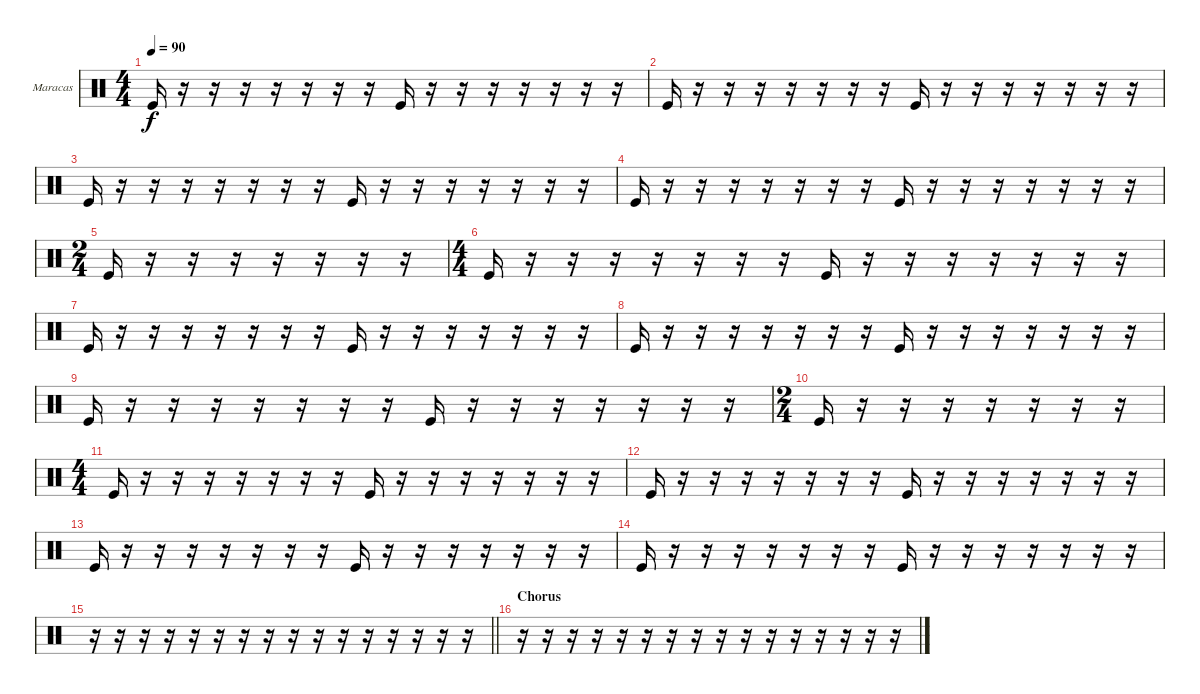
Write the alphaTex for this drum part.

\bracketExtendMode groupsimilarinstruments
\firstSystemTrackNameOrientation horizontal
\otherSystemsTrackNameOrientation horizontal
\track ("Maracas" "Maracas") {multiBarRest instrument percussion}
\staff {score}
\articulation defaults
\ts (4 4)
\beaming (8 2 2 2 2)
\tempo 90
\clef neutral
\ks c "Kick (hit)".16{dy f}
r.16 r.16 r.16 r.16 r.16 r.16 r.16 "Kick (hit)".16 r.16 r.16 r.16 r.16 r.16 r.16 r.16 |
"Kick (hit)".16 r.16 r.16 r.16 r.16 r.16 r.16 r.16 "Kick (hit)".16 r.16 r.16 r.16 r.16 r.16 r.16 r.16 |
"Kick (hit)".16 r.16 r.16 r.16 r.16 r.16 r.16 r.16 "Kick (hit)".16 r.16 r.16 r.16 r.16 r.16 r.16 r.16 |
"Kick (hit)".16 r.16 r.16 r.16 r.16 r.16 r.16 r.16 "Kick (hit)".16 r.16 r.16 r.16 r.16 r.16 r.16 r.16 |
\ts (2 4)
\beaming (8 2 2)
"Kick (hit)".16 r.16 r.16 r.16 r.16 r.16 r.16 r.16 |
\ts (4 4)
\beaming (8 2 2 2 2)
"Kick (hit)".16 r.16 r.16 r.16 r.16 r.16 r.16 r.16 "Kick (hit)".16 r.16 r.16 r.16 r.16 r.16 r.16 r.16 |
"Kick (hit)".16 r.16 r.16 r.16 r.16 r.16 r.16 r.16 "Kick (hit)".16 r.16 r.16 r.16 r.16 r.16 r.16 r.16 |
"Kick (hit)".16 r.16 r.16 r.16 r.16 r.16 r.16 r.16 "Kick (hit)".16 r.16 r.16 r.16 r.16 r.16 r.16 r.16 |
"Kick (hit)".16 r.16 r.16 r.16 r.16 r.16 r.16 r.16 "Kick (hit)".16 r.16 r.16 r.16 r.16 r.16 r.16 r.16 |
\ts (2 4)
\beaming (8 2 2)
"Kick (hit)".16 r.16 r.16 r.16 r.16 r.16 r.16 r.16 |
\ts (4 4)
\beaming (8 2 2 2 2)
"Kick (hit)".16 r.16 r.16 r.16 r.16 r.16 r.16 r.16 "Kick (hit)".16 r.16 r.16 r.16 r.16 r.16 r.16 r.16 |
"Kick (hit)".16 r.16 r.16 r.16 r.16 r.16 r.16 r.16 "Kick (hit)".16 r.16 r.16 r.16 r.16 r.16 r.16 r.16 |
"Kick (hit)".16 r.16 r.16 r.16 r.16 r.16 r.16 r.16 "Kick (hit)".16 r.16 r.16 r.16 r.16 r.16 r.16 r.16 |
"Kick (hit)".16 r.16 r.16 r.16 r.16 r.16 r.16 r.16 "Kick (hit)".16 r.16 r.16 r.16 r.16 r.16 r.16 r.16 |
\barLineRight lightlight
r.16 r.16 r.16 r.16 r.16 r.16 r.16 r.16 r.16 r.16 r.16 r.16 r.16 r.16 r.16 r.16 |
\section ("" "Chorus")
r.16 r.16 r.16 r.16 r.16 r.16 r.16 r.16 r.16 r.16 r.16 r.16 r.16 r.16 r.16 r.16
